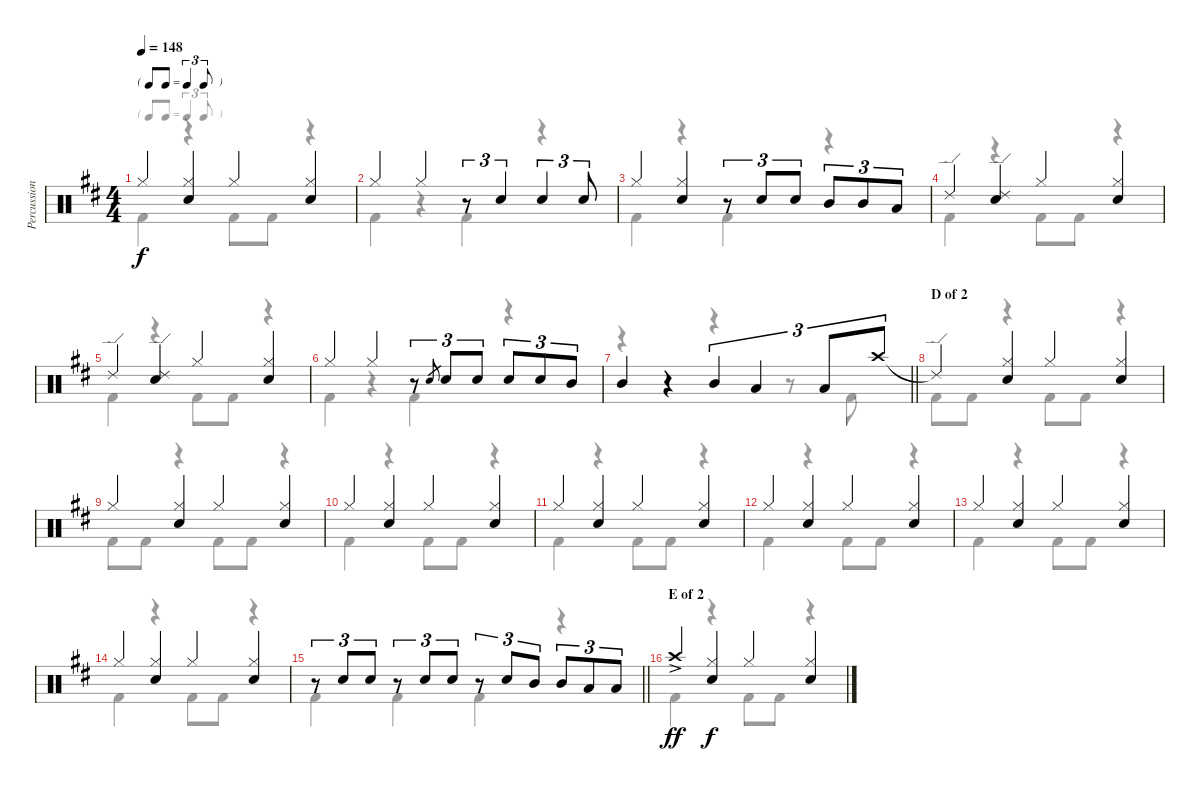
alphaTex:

\track ("Percussion" "Percussion") {instrument percussion}
\staff {score}
\articulation defaults
\voice
\ts (4 4)
\tf triplet8th
\tempo 148
\clef neutral
\ks bminor "Hi-Hat (closed)".4{dy f}
("Hi-Hat (closed)" "Snare (hit) 2").4 "Hi-Hat (closed)".4 ("Hi-Hat (closed)" "Snare (hit) 2").4 |
"Hi-Hat (closed)".4 "Hi-Hat (closed)".4 r.8{tu (3 2)} "Snare (hit) 2".4{tu (3 2)} "Snare (hit) 2".4{tu (3 2)} "Snare (hit) 2".8{tu (3 2)} |
"Hi-Hat (closed)".4 ("Hi-Hat (closed)" "Snare (hit) 2").4 r.8{tu (3 2)} "Snare (hit) 2".8{tu (3 2)} "Snare (hit) 2".8{tu (3 2)} "Mid Tom (hit)".8{tu (3 2)} "Mid Tom (hit)".8{tu (3 2)} "Low Tom (hit)".8{tu (3 2)} |
"Ride (edge) 2".4 ("Ride (edge) 2" "Snare (hit) 2").4 "Hi-Hat (closed)".4 ("Hi-Hat (closed)" "Snare (hit) 2").4 |
"Ride (edge) 2".4 ("Ride (edge) 2" "Snare (hit) 2").4 "Hi-Hat (closed)".4 ("Hi-Hat (closed)" "Snare (hit) 2").4 |
"Hi-Hat (closed)".4 "Hi-Hat (closed)".4 r.8{tu (3 2)} "Snare (hit) 2".8{gr} "Snare (hit) 2".8{tu (3 2)} "Snare (hit) 2".8{tu (3 2)} "Snare (hit) 2".8{tu (3 2)} "Snare (hit) 2".8{tu (3 2)} "Mid Tom (hit)".8{tu (3 2)} |
\barLineRight lightlight "Mid Tom (hit)".4
r.4 "Mid Tom (hit)".4{tu (3 2)} "Low Tom (hit)".4{tu (3 2)} "Low Tom (hit)".8{tu (3 2)} "Crash high (hit)".8{tu (3 2)} |
\section ("" "D of 2")
"Ride (edge) 2"{t}.4 ("Hi-Hat (closed)" "Snare (hit) 2").4 "Hi-Hat (closed)".4 ("Hi-Hat (closed)" "Snare (hit) 2").4 |
"Hi-Hat (closed)".4 ("Hi-Hat (closed)" "Snare (hit) 2").4 "Hi-Hat (closed)".4 ("Hi-Hat (closed)" "Snare (hit) 2").4 |
"Hi-Hat (closed)".4 ("Hi-Hat (closed)" "Snare (hit) 2").4 "Hi-Hat (closed)".4 ("Hi-Hat (closed)" "Snare (hit) 2").4 |
"Hi-Hat (closed)".4 ("Hi-Hat (closed)" "Snare (hit) 2").4 "Hi-Hat (closed)".4 ("Hi-Hat (closed)" "Snare (hit) 2").4 |
"Hi-Hat (closed)".4 ("Hi-Hat (closed)" "Snare (hit) 2").4 "Hi-Hat (closed)".4 ("Hi-Hat (closed)" "Snare (hit) 2").4 |
"Hi-Hat (closed)".4 ("Hi-Hat (closed)" "Snare (hit) 2").4 "Hi-Hat (closed)".4 ("Hi-Hat (closed)" "Snare (hit) 2").4 |
"Hi-Hat (closed)".4 ("Hi-Hat (closed)" "Snare (hit) 2").4 "Hi-Hat (closed)".4 ("Hi-Hat (closed)" "Snare (hit) 2").4 |
\barLineRight lightlight
r.8{tu (3 2)} "Snare (hit) 2".8{tu (3 2)} "Snare (hit) 2".8{tu (3 2)} r.8{tu (3 2)} "Snare (hit) 2".8{tu (3 2)} "Snare (hit) 2".8{tu (3 2)} r.8{tu (3 2)} "Snare (hit) 2".8{tu (3 2)} "Mid Tom (hit)".8{tu (3 2)} "Mid Tom (hit)".8{tu (3 2)} "Low Tom (hit)".8{tu (3 2)} "Low Tom (hit)".8{tu (3 2)} |
\section ("" "E of 2")
"Crash high (hit)"{ac}.4{dy ff} ("Hi-Hat (closed)" "Snare (hit) 2").4{dy f} "Hi-Hat (closed)".4 ("Hi-Hat (closed)" "Snare (hit) 2").4
\voice
\clef neutral
\ottava regular
\simile none
\ks bminor "Kick (hit) 2".4{dy f}
r.4 "Kick (hit) 2".8 "Kick (hit) 2".8 r.4 |
"Kick (hit) 2".4 r.4 "Kick (hit) 2".4 r.4 |
"Kick (hit) 2".4 r.4 "Kick (hit) 2".4 r.4 |
"Kick (hit) 2".4 r.4 "Kick (hit) 2".8 "Kick (hit) 2".8 r.4 |
"Kick (hit) 2".4 r.4 "Kick (hit) 2".8 "Kick (hit) 2".8 r.4 |
"Kick (hit) 2".4 r.4 "Kick (hit) 2".4 r.4 |
\barLineRight lightlight
r.4 r.4 r.4 r.8 "Kick (hit) 2".8 |
"Kick (hit) 2".8 "Kick (hit) 2".8 r.4 "Kick (hit) 2".8 "Kick (hit) 2".8 r.4 |
"Kick (hit) 2".8 "Kick (hit) 2".8 r.4 "Kick (hit) 2".8 "Kick (hit) 2".8 r.4 |
"Kick (hit) 2".4 r.4 "Kick (hit) 2".8 "Kick (hit) 2".8 r.4 |
"Kick (hit) 2".4 r.4 "Kick (hit) 2".8 "Kick (hit) 2".8 r.4 |
"Kick (hit) 2".4 r.4 "Kick (hit) 2".8 "Kick (hit) 2".8 r.4 |
"Kick (hit) 2".4 r.4 "Kick (hit) 2".8 "Kick (hit) 2".8 r.4 |
"Kick (hit) 2".4 r.4 "Kick (hit) 2".8 "Kick (hit) 2".8 r.4 |
\barLineRight lightlight "Kick (hit) 2".4 "Kick (hit) 2".4 "Kick (hit) 2".4
r.4 |
"Kick (hit) 2".4 r.4 "Kick (hit) 2".8 "Kick (hit) 2".8 r.4
